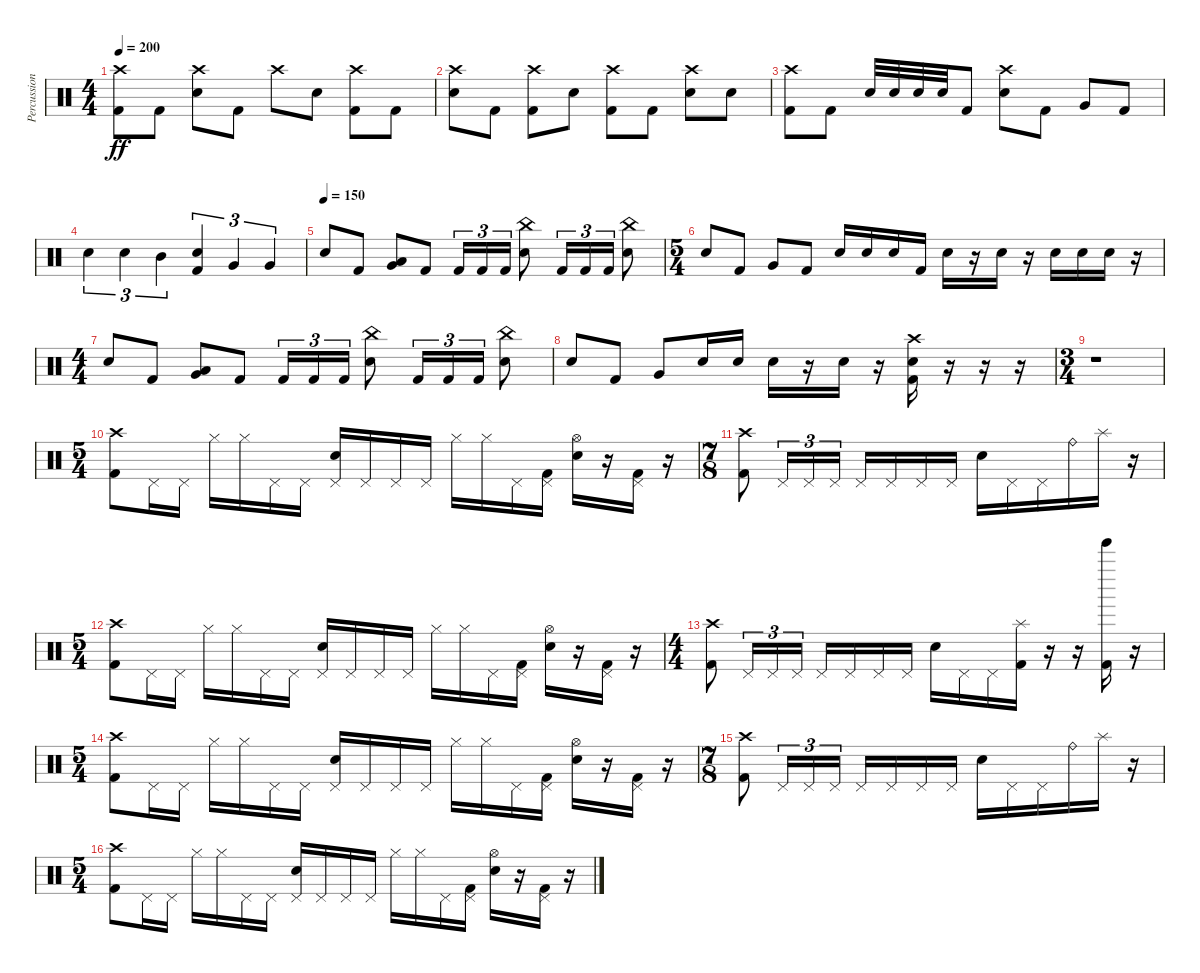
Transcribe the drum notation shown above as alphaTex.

\track ("Percussion" "Percussion") {instrument percussion}
\staff {score}
\articulation defaults
\ts (4 4)
\tempo 200
\clef neutral
\ks c
("Crash high (hit)" "Kick (hit) 2").8{dy ff} "Kick (hit) 2".8 ("Crash high (hit)" "Electric Snare (hit)").8 "Kick (hit) 2".8 "Crash high (hit)".8 "Electric Snare (hit)".8 ("Crash high (hit)" "Kick (hit) 2").8 "Kick (hit) 2".8 |
("Crash high (hit)" "Electric Snare (hit)").8 "Kick (hit) 2".8 ("Crash high (hit)" "Kick (hit) 2").8 "Electric Snare (hit)".8 ("Crash high (hit)" "Kick (hit) 2").8 "Kick (hit) 2".8 ("Crash high (hit)" "Electric Snare (hit)").8 "Electric Snare (hit)".8 |
("Crash high (hit)" "Kick (hit) 2").8 "Kick (hit) 2".8 "Electric Snare (hit)".32 "Electric Snare (hit)".32 "Electric Snare (hit)".32 "Electric Snare (hit)".32 "Kick (hit) 2".8 ("Crash high (hit)" "Electric Snare (hit)").8 "Kick (hit) 2".8 "Very Low Tom (hit)".8 "Kick (hit) 2".8 |
"Electric Snare (hit)".4{tu (3 2)} "Electric Snare (hit)".4{tu (3 2)} "Mid Tom (hit)".4{tu (3 2)} ("Electric Snare (hit)" "Kick (hit) 2").4{tu (3 2)} "Very Low Tom (hit)".4{tu (3 2)} "Very Low Tom (hit)".4{tu (3 2)} |
\tempo (150)
"Electric Snare (hit)".8 "Kick (hit) 2".8 ("Low Floor Tom (hit)" "Very Low Tom (hit)").8 "Kick (hit) 2".8 "Kick (hit) 2".16{tu (3 2)} "Kick (hit) 2".16{tu (3 2)} "Kick (hit) 2".16{tu (3 2)} ("China (hit)" "Electric Snare (hit)").8 "Kick (hit) 2".16{tu (3 2)} "Kick (hit) 2".16{tu (3 2)} "Kick (hit) 2".16{tu (3 2)} ("China (hit)" "Electric Snare (hit)").8 |
\ts (5 4)
"Electric Snare (hit)".8 "Kick (hit) 2".8 "Very Low Tom (hit)".8 "Kick (hit) 2".8 "Electric Snare (hit)".16 "Electric Snare (hit)".16 "Electric Snare (hit)".16 "Kick (hit) 2".16 "Electric Snare (hit)".16 r.16 "Electric Snare (hit)".16 r.16 "Electric Snare (hit)".16 "Electric Snare (hit)".16 "Electric Snare (hit)".16 r.16 |
\ts (4 4)
"Electric Snare (hit)".8 "Kick (hit) 2".8 ("Low Floor Tom (hit)" "Very Low Tom (hit)").8 "Kick (hit) 2".8 "Kick (hit) 2".16{tu (3 2)} "Kick (hit) 2".16{tu (3 2)} "Kick (hit) 2".16{tu (3 2)} ("China (hit)" "Electric Snare (hit)").8 "Kick (hit) 2".16{tu (3 2)} "Kick (hit) 2".16{tu (3 2)} "Kick (hit) 2".16{tu (3 2)} ("China (hit)" "Electric Snare (hit)").8 |
"Electric Snare (hit)".8 "Kick (hit) 2".8 "Very Low Tom (hit)".8 "Electric Snare (hit)".16 "Electric Snare (hit)".16 "Electric Snare (hit)".16 r.16 "Electric Snare (hit)".16 r.16 ("Crash high (hit)" "Electric Snare (hit)" "Kick (hit) 2").16 r.16 r.16 r.16 |
\ts (3 4)
r.1 |
\ts (5 4)
("Crash high (hit)" "Kick (hit) 2").8 "Pedal Hi-Hat (hit)".16 "Pedal Hi-Hat (hit)".16 "Hi-Hat (closed)".16 "Hi-Hat (closed)".16 "Pedal Hi-Hat (hit)".16 "Pedal Hi-Hat (hit)".16 ("Pedal Hi-Hat (hit)" "Electric Snare (hit)").16 "Pedal Hi-Hat (hit)".16 "Pedal Hi-Hat (hit)".16 "Pedal Hi-Hat (hit)".16 "Hi-Hat (closed)".16 "Hi-Hat (closed)".16 "Pedal Hi-Hat (hit)".16 ("Pedal Hi-Hat (hit)" "Kick (hit) 2").16 ("Hi-Hat (open)" "Electric Snare (hit)").16 r.16 ("Pedal Hi-Hat (hit)" "Kick (hit) 2").16 r.16 |
\ts (7 8)
("Crash high (hit)" "Kick (hit) 2").8 "Pedal Hi-Hat (hit)".16{tu (3 2)} "Pedal Hi-Hat (hit)".16{tu (3 2)} "Pedal Hi-Hat (hit)".16{tu (3 2)} "Pedal Hi-Hat (hit)".16 "Pedal Hi-Hat (hit)".16 "Pedal Hi-Hat (hit)".16 "Pedal Hi-Hat (hit)".16 "Electric Snare (hit)".16 "Pedal Hi-Hat (hit)".16 "Pedal Hi-Hat (hit)".16 "Ride (bell)".16 "Splash (hit)".16 r.16 |
\ts (5 4)
("Crash high (hit)" "Kick (hit) 2").8 "Pedal Hi-Hat (hit)".16 "Pedal Hi-Hat (hit)".16 "Hi-Hat (closed)".16 "Hi-Hat (closed)".16 "Pedal Hi-Hat (hit)".16 "Pedal Hi-Hat (hit)".16 ("Pedal Hi-Hat (hit)" "Electric Snare (hit)").16 "Pedal Hi-Hat (hit)".16 "Pedal Hi-Hat (hit)".16 "Pedal Hi-Hat (hit)".16 "Hi-Hat (closed)".16 "Hi-Hat (closed)".16 "Pedal Hi-Hat (hit)".16 ("Pedal Hi-Hat (hit)" "Kick (hit) 2").16 ("Hi-Hat (open)" "Electric Snare (hit)").16 r.16 ("Pedal Hi-Hat (hit)" "Kick (hit) 2").16 r.16 |
\ts (4 4)
("Crash high (hit)" "Kick (hit) 2").8 "Pedal Hi-Hat (hit)".16{tu (3 2)} "Pedal Hi-Hat (hit)".16{tu (3 2)} "Pedal Hi-Hat (hit)".16{tu (3 2)} "Pedal Hi-Hat (hit)".16 "Pedal Hi-Hat (hit)".16 "Pedal Hi-Hat (hit)".16 "Pedal Hi-Hat (hit)".16 "Electric Snare (hit)".16 "Pedal Hi-Hat (hit)".16 "Pedal Hi-Hat (hit)".16 ("Splash (hit)" "Kick (hit) 2").16 r.16 r.16 ("Tinkle Bell (hit)" "Kick (hit) 2").16 r.16 |
\ts (5 4)
("Crash high (hit)" "Kick (hit) 2").8 "Pedal Hi-Hat (hit)".16 "Pedal Hi-Hat (hit)".16 "Hi-Hat (closed)".16 "Hi-Hat (closed)".16 "Pedal Hi-Hat (hit)".16 "Pedal Hi-Hat (hit)".16 ("Pedal Hi-Hat (hit)" "Electric Snare (hit)").16 "Pedal Hi-Hat (hit)".16 "Pedal Hi-Hat (hit)".16 "Pedal Hi-Hat (hit)".16 "Hi-Hat (closed)".16 "Hi-Hat (closed)".16 "Pedal Hi-Hat (hit)".16 ("Pedal Hi-Hat (hit)" "Kick (hit) 2").16 ("Hi-Hat (open)" "Electric Snare (hit)").16 r.16 ("Pedal Hi-Hat (hit)" "Kick (hit) 2").16 r.16 |
\ts (7 8)
("Crash high (hit)" "Kick (hit) 2").8 "Pedal Hi-Hat (hit)".16{tu (3 2)} "Pedal Hi-Hat (hit)".16{tu (3 2)} "Pedal Hi-Hat (hit)".16{tu (3 2)} "Pedal Hi-Hat (hit)".16 "Pedal Hi-Hat (hit)".16 "Pedal Hi-Hat (hit)".16 "Pedal Hi-Hat (hit)".16 "Electric Snare (hit)".16 "Pedal Hi-Hat (hit)".16 "Pedal Hi-Hat (hit)".16 "Ride (bell)".16 "Splash (hit)".16 r.16 |
\ts (5 4)
("Crash high (hit)" "Kick (hit) 2").8 "Pedal Hi-Hat (hit)".16 "Pedal Hi-Hat (hit)".16 "Hi-Hat (closed)".16 "Hi-Hat (closed)".16 "Pedal Hi-Hat (hit)".16 "Pedal Hi-Hat (hit)".16 ("Pedal Hi-Hat (hit)" "Electric Snare (hit)").16 "Pedal Hi-Hat (hit)".16 "Pedal Hi-Hat (hit)".16 "Pedal Hi-Hat (hit)".16 "Hi-Hat (closed)".16 "Hi-Hat (closed)".16 "Pedal Hi-Hat (hit)".16 ("Pedal Hi-Hat (hit)" "Kick (hit) 2").16 ("Hi-Hat (open)" "Electric Snare (hit)").16 r.16 ("Pedal Hi-Hat (hit)" "Kick (hit) 2").16 r.16
